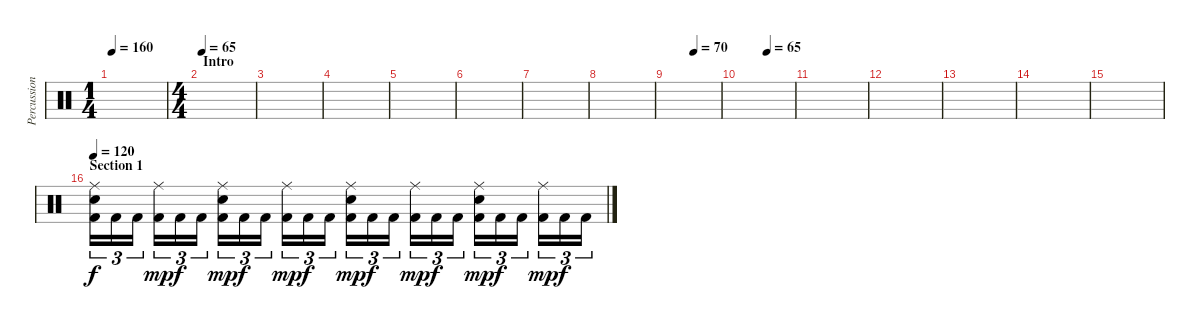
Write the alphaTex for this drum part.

\track ("Percussion" "Percussion") {instrument percussion}
\staff {score}
\articulation defaults
\ts (1 4)
\tempo 160
\tempo 65
\tempo 160
\clef neutral
\ks c
|
\ts (4 4)
\section ("" "Intro")
\tempo 65
|
|
|
|
|
|
|
\tempo (70 0.5)
|
\tempo (65 0.5)
|
|
|
|
|
|
\section ("" "Section 1")
\tempo 120
("Ride (middle)" "Electric Snare (hit)" "Kick (hit) 2").16{tu (3 2)} "Kick (hit) 2".16{tu (3 2) dy f} "Kick (hit) 2".16{tu (3 2)} ("Ride (middle)" "Kick (hit) 2").16{tu (3 2) dy mp} "Kick (hit) 2".16{tu (3 2) dy f} "Kick (hit) 2".16{tu (3 2)} ("Ride (middle)" "Electric Snare (hit)" "Kick (hit) 2").16{tu (3 2) dy mp} "Kick (hit) 2".16{tu (3 2) dy f} "Kick (hit) 2".16{tu (3 2)} ("Ride (middle)" "Kick (hit) 2").16{tu (3 2) dy mp} "Kick (hit) 2".16{tu (3 2) dy f} "Kick (hit) 2".16{tu (3 2)} ("Ride (middle)" "Electric Snare (hit)" "Kick (hit) 2").16{tu (3 2) dy mp} "Kick (hit) 2".16{tu (3 2) dy f} "Kick (hit) 2".16{tu (3 2)} ("Ride (middle)" "Kick (hit) 2").16{tu (3 2) dy mp} "Kick (hit) 2".16{tu (3 2) dy f} "Kick (hit) 2".16{tu (3 2)} ("Ride (middle)" "Electric Snare (hit)" "Kick (hit) 2").16{tu (3 2) dy mp} "Kick (hit) 2".16{tu (3 2) dy f} "Kick (hit) 2".16{tu (3 2)} ("Ride (middle)" "Kick (hit) 2").16{tu (3 2) dy mp} "Kick (hit) 2".16{tu (3 2) dy f} "Kick (hit) 2".16{tu (3 2)}
